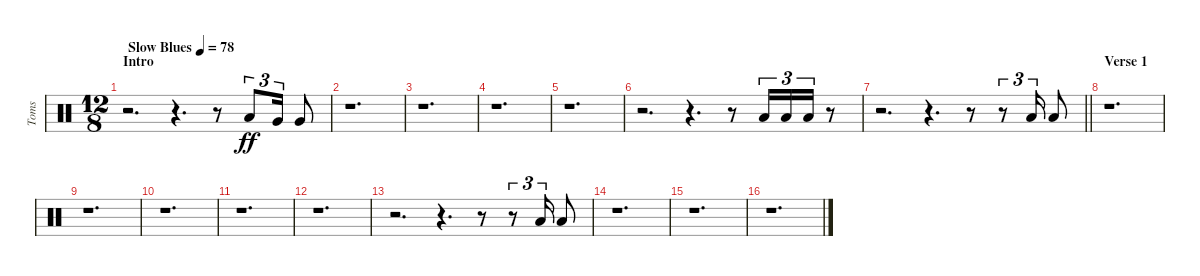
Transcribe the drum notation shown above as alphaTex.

\track ("Toms" "Toms") {instrument percussion}
\staff {score}
\articulation defaults
\ts (12 8)
\section ("" "Intro")
\tempo (78 "Slow Blues")
\clef neutral
\ks c
r.2{d dy ff} r.4{d} r.8 "Low Tom (hit)".8{tu (3 2) beam Up} "Very Low Tom (hit)".16{tu (3 2) balance 5 beam Up} "Very Low Tom (hit)".8{beam Up} |
r.1{d} |
r.1{d} |
r.1{d} |
r.1{d} |
r.2{d} r.4{d} r.8{balance 8} "Low Tom (hit)".16{tu (3 2) beam Up} "Low Tom (hit)".16{tu (3 2) beam Up} "Low Tom (hit)".16{tu (3 2) beam Up} r.8 |
\barLineRight lightlight
r.2{d} r.4{d} r.8 r.8{tu (3 2) beam Up} "Low Tom (hit)".16{tu (3 2) beam Up} "Low Tom (hit)".8{beam Up} |
\section ("" "Verse 1")
r.1{d} |
r.1{d} |
r.1{d} |
r.1{d} |
r.1{d} |
r.2{d} r.4{d} r.8 r.8{tu (3 2) beam Up} "Low Tom (hit)".16{tu (3 2) beam Up} "Low Tom (hit)".8{beam Up} |
r.1{d} |
r.1{d} |
r.1{d}
